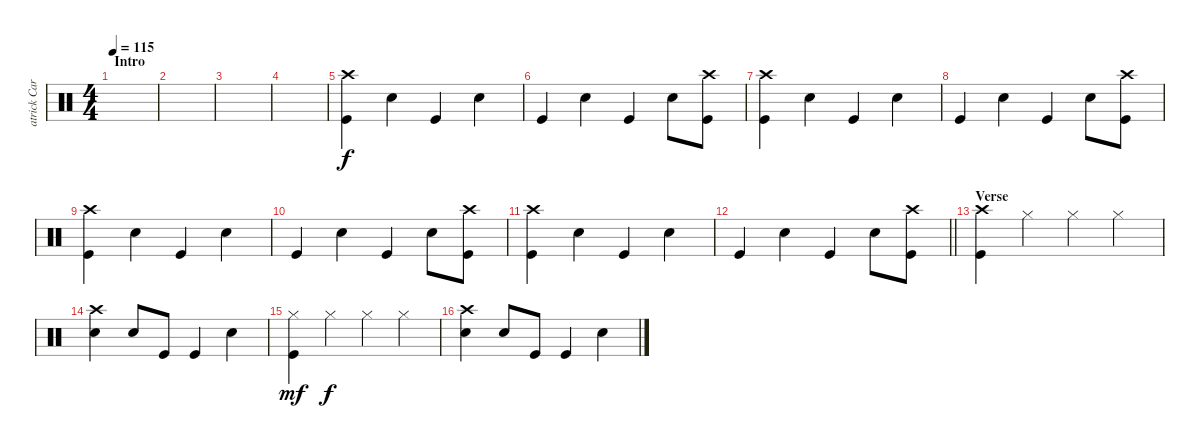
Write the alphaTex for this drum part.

\track ("atrick Carney - Percussion" "atrick Car") {instrument percussion}
\staff {score}
\articulation defaults
\ts (4 4)
\section ("" "Intro")
\tempo 115
\clef neutral
\ks c
|
|
|
|
("Crash high (hit)" "Kick (hit)").4 "Electric Snare (hit)".4 "Kick (hit)".4 "Electric Snare (hit)".4 |
"Kick (hit)".4 "Electric Snare (hit)".4 "Kick (hit)".4 "Electric Snare (hit)".8 ("Crash high (hit)" "Kick (hit)").8 |
("Crash high (hit)" "Kick (hit)").4 "Electric Snare (hit)".4 "Kick (hit)".4 "Electric Snare (hit)".4 |
"Kick (hit)".4 "Electric Snare (hit)".4 "Kick (hit)".4 "Electric Snare (hit)".8 ("Crash high (hit)" "Kick (hit)").8 |
("Crash high (hit)" "Kick (hit)").4 "Electric Snare (hit)".4 "Kick (hit)".4 "Electric Snare (hit)".4 |
"Kick (hit)".4 "Electric Snare (hit)".4 "Kick (hit)".4 "Electric Snare (hit)".8 ("Crash high (hit)" "Kick (hit)").8 |
("Crash high (hit)" "Kick (hit)").4 "Electric Snare (hit)".4 "Kick (hit)".4 "Electric Snare (hit)".4 |
\barLineRight lightlight "Kick (hit)".4 "Electric Snare (hit)".4 "Kick (hit)".4 "Electric Snare (hit)".8
("Crash high (hit)" "Kick (hit)").8 |
\section ("" "Verse")
("Crash high (hit)" "Kick (hit)").4 "Hi-Hat (closed)".4 "Hi-Hat (closed)".4 "Hi-Hat (closed)".4 |
("Crash high (hit)" "Electric Snare (hit)").4 "Electric Snare (hit)".8 "Kick (hit)".8 "Kick (hit)".4 "Electric Snare (hit)".4 |
("Hi-Hat (closed)" "Kick (hit)").4{dy mf} "Hi-Hat (closed)".4{dy f} "Hi-Hat (closed)".4 "Hi-Hat (closed)".4 |
("Crash high (hit)" "Electric Snare (hit)").4 "Electric Snare (hit)".8 "Kick (hit)".8 "Kick (hit)".4 "Electric Snare (hit)".4
